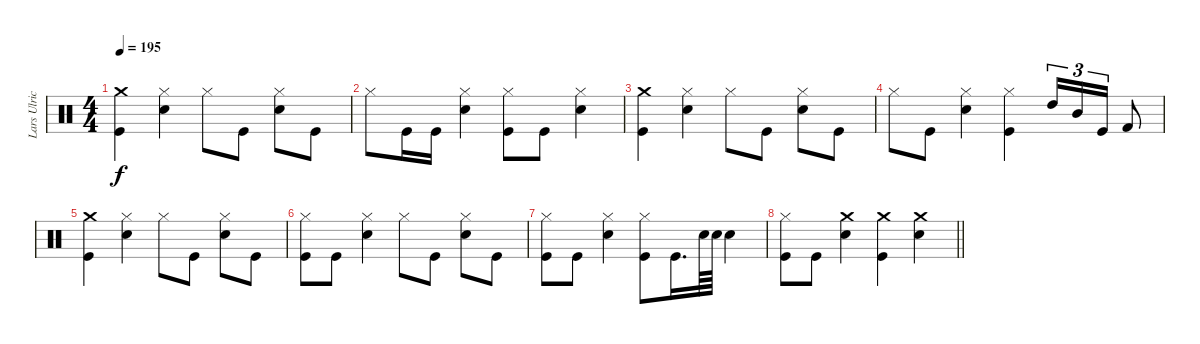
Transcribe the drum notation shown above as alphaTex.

\track ("Lars Ulrich (Drums)" "Lars Ulric") {instrument percussion}
\staff {score}
\articulation defaults
\ts (4 4)
\tempo 195
\clef neutral
\ks c
("Kick (hit)" "Crash medium (hit)").4{dy f} ("Snare (hit) 2" "Hi-Hat (closed)").4 "Hi-Hat (closed)".8 "Kick (hit)".8 ("Snare (hit) 2" "Hi-Hat (closed)").8 "Kick (hit)".8 |
"Hi-Hat (closed)".8 "Kick (hit)".16 "Kick (hit)".16 ("Snare (hit) 2" "Hi-Hat (closed)").4 ("Kick (hit)" "Hi-Hat (closed)").8 "Kick (hit)".8 ("Snare (hit) 2" "Hi-Hat (closed)").4 |
("Kick (hit)" "Crash medium (hit)").4 ("Hi-Hat (closed)" "Snare (hit) 2").4 "Hi-Hat (closed)".8 "Kick (hit)".8 ("Snare (hit) 2" "Hi-Hat (closed)").8 "Kick (hit)".8 |
"Hi-Hat (closed)".8 "Kick (hit)".8 ("Snare (hit) 2" "Hi-Hat (closed)").4 ("Kick (hit)" "Hi-Hat (closed)").4 "High Tom (hit)".16{tu (3 2)} "Mid Tom (hit)".16{tu (3 2)} "Kick (hit)".16{tu (3 2)} "Kick (hit) 2".8 |
("Kick (hit)" "Crash medium (hit)").4 ("Snare (hit) 2" "Hi-Hat (closed)").4 "Hi-Hat (closed)".8 "Kick (hit)".8 ("Snare (hit) 2" "Hi-Hat (closed)").8 "Kick (hit)".8 |
("Kick (hit)" "Hi-Hat (closed)").8 "Kick (hit)".8 ("Snare (hit) 2" "Hi-Hat (closed)").4 "Hi-Hat (closed)".8 "Kick (hit)".8 ("Snare (hit) 2" "Hi-Hat (closed)").8 "Kick (hit)".8 |
("Hi-Hat (closed)" "Kick (hit)").8 "Kick (hit)".8 ("Snare (hit) 2" "Hi-Hat (closed)").4 ("Hi-Hat (closed)" "Kick (hit)").8 "Kick (hit)".16{d} "Snare (hit)".64 "Snare (hit) 2".64 "Snare (hit) 2".4 |
\barLineRight lightlight
("Kick (hit)" "Hi-Hat (closed)").8 "Kick (hit)".8 ("Crash medium (hit)" "Snare (hit) 2").4 ("Kick (hit)" "Crash medium (hit)").4 ("Snare (hit) 2" "Crash medium (hit)").4
